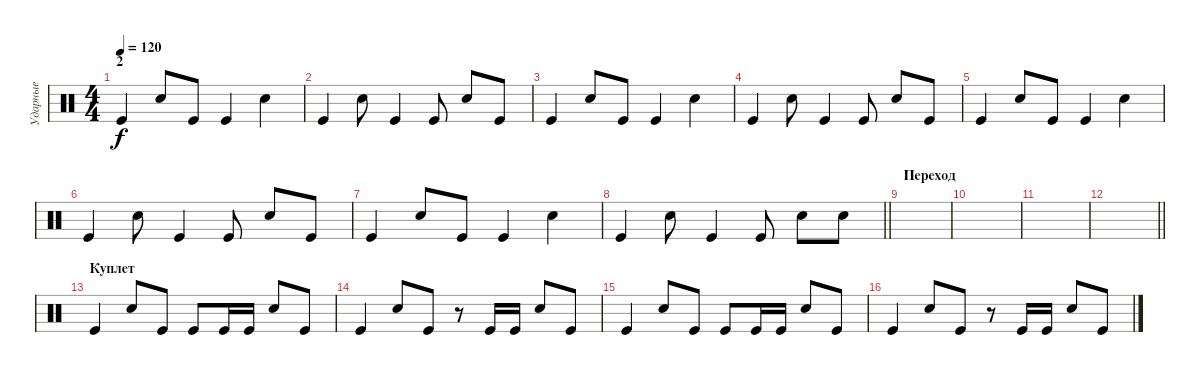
\track ("Ударные" "Ударные") {instrument percussion}
\staff {score}
\articulation defaults
\ts (4 4)
\section ("" "2")
\tempo 120
\clef neutral
\ks c "Kick (hit)".4{dy f} "Snare (hit) 2".8 "Kick (hit)".8 "Kick (hit)".4 "Snare (hit) 2".4
|
"Kick (hit)".4 "Snare (hit) 2".8 "Kick (hit)".4 "Kick (hit)".8 "Snare (hit) 2".8 "Kick (hit)".8 |
"Kick (hit)".4 "Snare (hit) 2".8 "Kick (hit)".8 "Kick (hit)".4 "Snare (hit) 2".4 |
"Kick (hit)".4 "Snare (hit) 2".8 "Kick (hit)".4 "Kick (hit)".8 "Snare (hit) 2".8 "Kick (hit)".8 |
"Kick (hit)".4 "Snare (hit) 2".8 "Kick (hit)".8 "Kick (hit)".4 "Snare (hit) 2".4 |
"Kick (hit)".4 "Snare (hit) 2".8 "Kick (hit)".4 "Kick (hit)".8 "Snare (hit) 2".8 "Kick (hit)".8 |
"Kick (hit)".4 "Snare (hit) 2".8 "Kick (hit)".8 "Kick (hit)".4 "Snare (hit) 2".4 |
\barLineRight lightlight "Kick (hit)".4 "Snare (hit) 2".8 "Kick (hit)".4 "Kick (hit)".8 "Snare (hit) 2".8 "Snare (hit) 2".8
|
\section ("" "Переход")
|
|
|
\barLineRight lightlight
|
\section ("" "Куплет")
"Kick (hit)".4 "Snare (hit) 2".8 "Kick (hit)".8 "Kick (hit)".8 "Kick (hit)".16 "Kick (hit)".16 "Snare (hit) 2".8 "Kick (hit)".8 |
"Kick (hit)".4 "Snare (hit) 2".8 "Kick (hit)".8 r.8 "Kick (hit)".16 "Kick (hit)".16 "Snare (hit) 2".8 "Kick (hit)".8 |
"Kick (hit)".4 "Snare (hit) 2".8 "Kick (hit)".8 "Kick (hit)".8 "Kick (hit)".16 "Kick (hit)".16 "Snare (hit) 2".8 "Kick (hit)".8 |
"Kick (hit)".4 "Snare (hit) 2".8 "Kick (hit)".8 r.8 "Kick (hit)".16 "Kick (hit)".16 "Snare (hit) 2".8 "Kick (hit)".8
